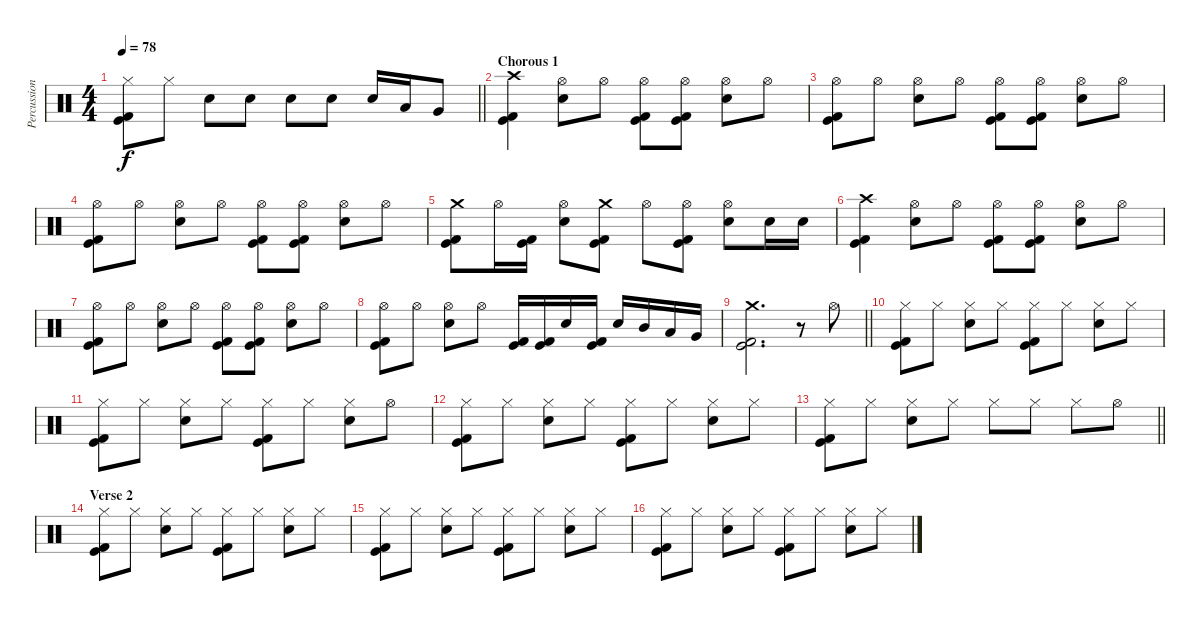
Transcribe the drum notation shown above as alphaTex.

\track ("Percussion" "Percussion") {instrument percussion}
\staff {score}
\articulation defaults
\ts (4 4)
\tempo 78
\clef neutral
\barLineRight lightlight
\ks c
("Hi-Hat (closed)" "Kick (hit)" "Kick (hit) 2").8{dy f} "Hi-Hat (closed)".8 "Electric Snare (hit)".8 "Electric Snare (hit)".8 "Electric Snare (hit)".8 "Electric Snare (hit)".8 "Electric Snare (hit)".16 "Low Tom (hit)".16 "Very Low Tom (hit)".8 |
\section ("" "Chorous 1")
("Crash high (hit)" "Kick (hit)" "Kick (hit) 2").4 ("Hi-Hat (open)" "Electric Snare (hit)").8 "Hi-Hat (open)".8 ("Hi-Hat (open)" "Kick (hit)" "Kick (hit) 2").8 ("Hi-Hat (open)" "Kick (hit)" "Kick (hit) 2").8 ("Hi-Hat (open)" "Electric Snare (hit)").8 "Hi-Hat (open)".8 |
("Hi-Hat (open)" "Kick (hit)" "Kick (hit) 2").8 "Hi-Hat (open)".8 ("Hi-Hat (open)" "Electric Snare (hit)").8 "Hi-Hat (open)".8 ("Hi-Hat (open)" "Kick (hit)" "Kick (hit) 2").8 ("Hi-Hat (open)" "Kick (hit)" "Kick (hit) 2").8 ("Hi-Hat (open)" "Electric Snare (hit)").8 "Hi-Hat (open)".8 |
("Hi-Hat (open)" "Kick (hit)" "Kick (hit) 2").8 "Hi-Hat (open)".8 ("Hi-Hat (open)" "Electric Snare (hit)").8 "Hi-Hat (open)".8 ("Hi-Hat (open)" "Kick (hit)" "Kick (hit) 2").8 ("Hi-Hat (open)" "Kick (hit)" "Kick (hit) 2").8 ("Hi-Hat (open)" "Electric Snare (hit)").8 "Hi-Hat (open)".8 |
("Crash medium (hit)" "Kick (hit)" "Kick (hit) 2").8 "Hi-Hat (open)".16 ("Kick (hit)" "Kick (hit) 2").16 ("Hi-Hat (open)" "Electric Snare (hit)").8 ("Crash medium (hit)" "Kick (hit)" "Kick (hit) 2").8 "Hi-Hat (open)".8 ("Hi-Hat (open)" "Kick (hit)" "Kick (hit) 2").8 ("Hi-Hat (open)" "Electric Snare (hit)").8 "Electric Snare (hit)".16 "Electric Snare (hit)".16 |
("Crash high (hit)" "Kick (hit)" "Kick (hit) 2").4 ("Hi-Hat (open)" "Electric Snare (hit)").8 "Hi-Hat (open)".8 ("Hi-Hat (open)" "Kick (hit)" "Kick (hit) 2").8 ("Hi-Hat (open)" "Kick (hit)" "Kick (hit) 2").8 ("Hi-Hat (open)" "Electric Snare (hit)").8 "Hi-Hat (open)".8 |
("Hi-Hat (open)" "Kick (hit)" "Kick (hit) 2").8 "Hi-Hat (open)".8 ("Hi-Hat (open)" "Electric Snare (hit)").8 "Hi-Hat (open)".8 ("Hi-Hat (open)" "Kick (hit)" "Kick (hit) 2").8 ("Hi-Hat (open)" "Kick (hit)" "Kick (hit) 2").8 ("Hi-Hat (open)" "Electric Snare (hit)").8 "Hi-Hat (open)".8 |
("Hi-Hat (open)" "Kick (hit)" "Kick (hit) 2").8 "Hi-Hat (open)".8 ("Hi-Hat (open)" "Electric Snare (hit)").8 "Hi-Hat (open)".8 ("Kick (hit)" "Kick (hit) 2").16 ("Kick (hit)" "Kick (hit) 2").16 "Electric Snare (hit)".16 ("Kick (hit)" "Kick (hit) 2").16 "Electric Snare (hit)".16 "Mid Tom (hit)".16 "Low Tom (hit)".16 "Very Low Tom (hit)".16 |
\barLineRight lightlight
("Crash medium (hit)" "Kick (hit)" "Kick (hit) 2").2{d} r.8 "Hi-Hat (open)".8 |
\section ("" "")
("Hi-Hat (closed)" "Kick (hit)" "Kick (hit) 2").8 "Hi-Hat (closed)".8 ("Hi-Hat (closed)" "Electric Snare (hit)").8 "Hi-Hat (closed)".8 ("Hi-Hat (closed)" "Kick (hit)" "Kick (hit) 2").8 "Hi-Hat (closed)".8 ("Hi-Hat (closed)" "Electric Snare (hit)").8 "Hi-Hat (closed)".8 |
("Hi-Hat (closed)" "Kick (hit)" "Kick (hit) 2").8 "Hi-Hat (closed)".8 ("Hi-Hat (closed)" "Electric Snare (hit)").8 "Hi-Hat (closed)".8 ("Hi-Hat (closed)" "Kick (hit)" "Kick (hit) 2").8 "Hi-Hat (closed)".8 ("Hi-Hat (closed)" "Electric Snare (hit)").8 "Hi-Hat (open)".8 |
("Hi-Hat (closed)" "Kick (hit)" "Kick (hit) 2").8 "Hi-Hat (closed)".8 ("Hi-Hat (closed)" "Electric Snare (hit)").8 "Hi-Hat (closed)".8 ("Hi-Hat (closed)" "Kick (hit)" "Kick (hit) 2").8 "Hi-Hat (closed)".8 ("Hi-Hat (closed)" "Electric Snare (hit)").8 "Hi-Hat (closed)".8 |
\barLineRight lightlight
("Hi-Hat (closed)" "Kick (hit)" "Kick (hit) 2").8 "Hi-Hat (closed)".8 ("Hi-Hat (closed)" "Electric Snare (hit)").8 "Hi-Hat (closed)".8 "Hi-Hat (closed)".8 "Hi-Hat (closed)".8 "Hi-Hat (closed)".8 "Hi-Hat (open)".8 |
\section ("" "Verse 2")
("Hi-Hat (closed)" "Kick (hit)" "Kick (hit) 2").8 "Hi-Hat (closed)".8 ("Hi-Hat (closed)" "Electric Snare (hit)").8 "Hi-Hat (closed)".8 ("Hi-Hat (closed)" "Kick (hit)" "Kick (hit) 2").8 "Hi-Hat (closed)".8 ("Hi-Hat (closed)" "Electric Snare (hit)").8 "Hi-Hat (closed)".8 |
("Hi-Hat (closed)" "Kick (hit)" "Kick (hit) 2").8 "Hi-Hat (closed)".8 ("Hi-Hat (closed)" "Electric Snare (hit)").8 "Hi-Hat (closed)".8 ("Hi-Hat (closed)" "Kick (hit)" "Kick (hit) 2").8 "Hi-Hat (closed)".8 ("Hi-Hat (closed)" "Electric Snare (hit)").8 "Hi-Hat (closed)".8 |
("Hi-Hat (closed)" "Kick (hit)" "Kick (hit) 2").8 "Hi-Hat (closed)".8 ("Hi-Hat (closed)" "Electric Snare (hit)").8 "Hi-Hat (closed)".8 ("Hi-Hat (closed)" "Kick (hit)" "Kick (hit) 2").8 "Hi-Hat (closed)".8 ("Hi-Hat (closed)" "Electric Snare (hit)").8 "Hi-Hat (closed)".8
